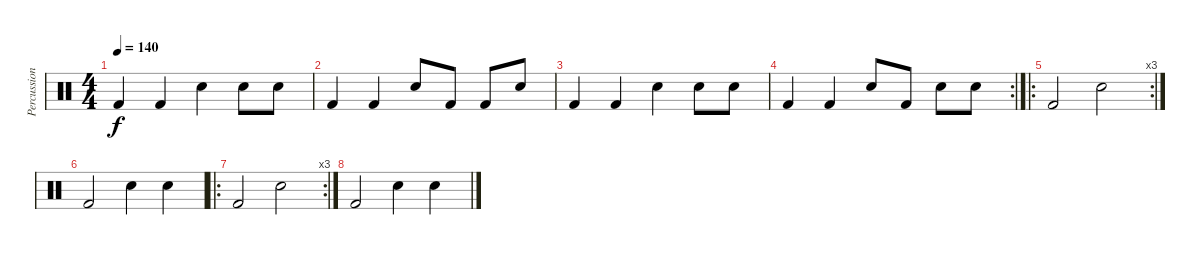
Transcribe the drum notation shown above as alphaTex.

\track ("Percussions" "Percussion") {instrument percussion}
\staff {score}
\articulation defaults
\ts (4 4)
\tempo 140
\clef neutral
\ks c "Kick (hit) 2".4{dy f} "Kick (hit) 2".4 "Snare (hit) 2".4 "Snare (hit) 2".8 "Snare (hit) 2".8
|
"Kick (hit) 2".4 "Kick (hit) 2".4 "Snare (hit) 2".8 "Kick (hit) 2".8 "Kick (hit) 2".8 "Snare (hit) 2".8 |
"Kick (hit) 2".4 "Kick (hit) 2".4 "Snare (hit) 2".4 "Snare (hit) 2".8 "Snare (hit) 2".8 |
\rc 2 "Kick (hit) 2".4 "Kick (hit) 2".4 "Snare (hit) 2".8 "Kick (hit) 2".8 "Snare (hit) 2".8 "Snare (hit) 2".8
|
\ro
\rc 3 "Kick (hit) 2".2 "Snare (hit) 2".2
|
"Kick (hit) 2".2 "Snare (hit) 2".4 "Snare (hit) 2".4 |
\ro
\rc 3 "Kick (hit) 2".2 "Snare (hit) 2".2
|
"Kick (hit) 2".2 "Snare (hit) 2".4 "Snare (hit) 2".4
